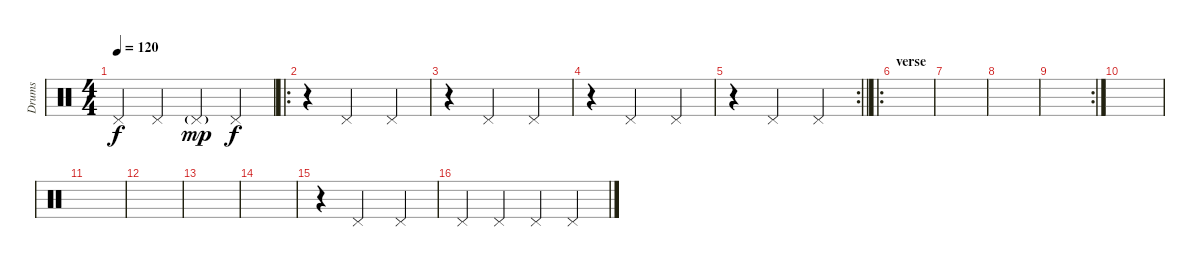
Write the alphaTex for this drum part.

\track ("Drums" "Drums") {instrument percussion}
\staff {score}
\articulation defaults
\ts (4 4)
\tempo 120
\clef neutral
\ks c "Pedal Hi-Hat (hit)".4{dy f} "Pedal Hi-Hat (hit)".4 "Pedal Hi-Hat (hit)"{g}.4{dy mp} "Pedal Hi-Hat (hit)".4{dy f}
|
\ro
r.4 "Pedal Hi-Hat (hit)".2 "Pedal Hi-Hat (hit)".4 |
r.4 "Pedal Hi-Hat (hit)".2 "Pedal Hi-Hat (hit)".4 |
r.4 "Pedal Hi-Hat (hit)".2 "Pedal Hi-Hat (hit)".4 |
\rc 2
\barLineRight lightlight
r.4 "Pedal Hi-Hat (hit)".2 "Pedal Hi-Hat (hit)".4 |
\ro
\section ("" "verse")
|
|
|
\rc 2
|
|
|
|
|
|
r.4 "Pedal Hi-Hat (hit)".2 "Pedal Hi-Hat (hit)".4 |
"Pedal Hi-Hat (hit)".4 "Pedal Hi-Hat (hit)".4 "Pedal Hi-Hat (hit)".4 "Pedal Hi-Hat (hit)".4
